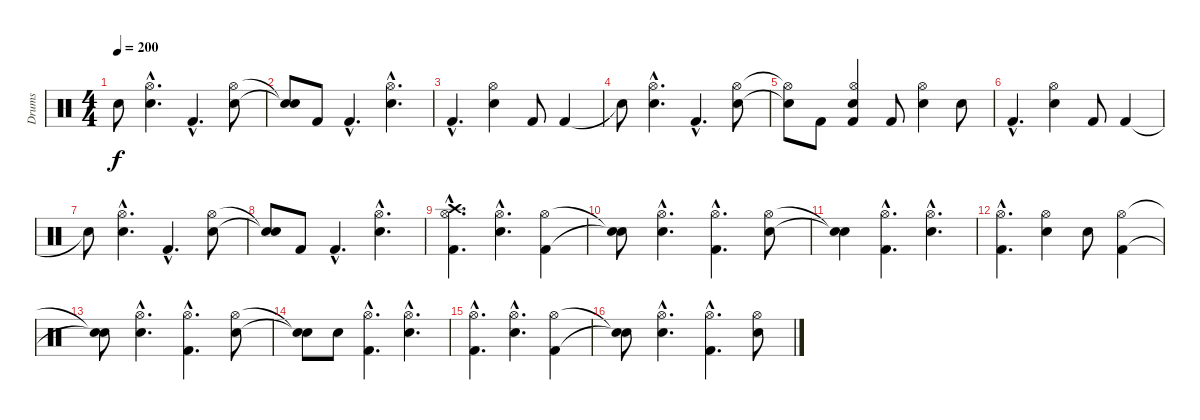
\track ("Drums" "Drums") {instrument percussion}
\staff {score}
\articulation defaults
\ts (4 4)
\tempo 200
\clef neutral
\ks c "Snare (hit)"{t}.8{dy f}
("Hi-Hat (open)"{hac} "Snare (hit) 2"{hac}).4{d} "Kick (hit) 2"{hac}.4{d} ("Hi-Hat (open)" "Snare (hit) 2").8 |
("Snare (hit)"{t} "Snare (hit)"{t}).8 "Kick (hit) 2".8 "Kick (hit) 2"{hac}.4{d} ("Hi-Hat (open)"{hac} "Snare (hit) 2"{hac}).4{d} |
"Kick (hit) 2"{hac}.4{d} ("Hi-Hat (open)" "Snare (hit) 2").4 "Kick (hit) 2".8 "Kick (hit) 2".4 |
"Snare (hit)"{t}.8 ("Hi-Hat (open)"{hac} "Snare (hit) 2"{hac}).4{d} "Kick (hit) 2"{hac}.4{d} ("Hi-Hat (open)" "Snare (hit) 2").8 |
("Hi-Hat (open)"{t} "Snare (hit) 2"{t}).8 "Kick (hit) 2".8 ("Hi-Hat (open)" "Snare (hit) 2" "Kick (hit) 2").4 "Kick (hit) 2".8 ("Hi-Hat (open)" "Snare (hit) 2").4 "Snare (hit) 2".8 |
"Kick (hit) 2"{hac}.4{d} ("Hi-Hat (open)" "Snare (hit) 2").4 "Kick (hit) 2".8 "Kick (hit) 2".4 |
"Snare (hit)"{t}.8 ("Hi-Hat (open)"{hac} "Snare (hit) 2"{hac}).4{d} "Kick (hit) 2"{hac}.4{d} ("Hi-Hat (open)" "Snare (hit) 2").8 |
("Snare (hit)"{t} "Snare (hit)"{t}).8 "Kick (hit) 2".8 "Kick (hit) 2"{hac}.4{d} ("Hi-Hat (open)"{hac} "Snare (hit) 2"{hac}).4{d} |
("Crash high (hit)"{hac} "Hi-Hat (open)"{hac} "Kick (hit) 2"{hac}).4{d} ("Hi-Hat (open)"{hac} "Snare (hit) 2"{hac}).4{d} ("Hi-Hat (open)" "Kick (hit) 2").4 |
("Snare (hit)"{t} "Snare (hit)"{t}).8 ("Hi-Hat (open)"{hac} "Snare (hit) 2"{hac}).4{d} ("Hi-Hat (open)"{hac} "Kick (hit) 2"{hac}).4{d} ("Hi-Hat (open)" "Snare (hit) 2").8 |
("Snare (hit)"{t} "Snare (hit)"{t}).4 ("Hi-Hat (open)"{hac} "Kick (hit) 2"{hac}).4{d} ("Hi-Hat (open)"{hac} "Snare (hit) 2"{hac}).4{d} |
("Hi-Hat (open)"{hac} "Kick (hit) 2"{hac}).4{d} ("Hi-Hat (open)" "Snare (hit) 2").4 "Snare (hit) 2".8 ("Hi-Hat (open)" "Kick (hit) 2").4 |
("Snare (hit)"{t} "Snare (hit)"{t}).8 ("Hi-Hat (open)"{hac} "Snare (hit) 2"{hac}).4{d} ("Hi-Hat (open)"{hac} "Kick (hit) 2"{hac}).4{d} ("Hi-Hat (open)" "Snare (hit) 2").8 |
("Snare (hit)"{t} "Snare (hit) 2"{t}).8 "Snare (hit) 2".8 ("Hi-Hat (open)"{hac} "Kick (hit) 2"{hac}).4{d} ("Hi-Hat (open)"{hac} "Snare (hit) 2"{hac}).4{d} |
("Hi-Hat (open)"{hac} "Kick (hit) 2"{hac}).4{d} ("Hi-Hat (open)"{hac} "Snare (hit) 2"{hac}).4{d} ("Hi-Hat (open)" "Kick (hit) 2").4 |
("Snare (hit)"{t} "Snare (hit)"{t}).8 ("Hi-Hat (open)"{hac} "Snare (hit) 2"{hac}).4{d} ("Hi-Hat (open)"{hac} "Kick (hit) 2"{hac}).4{d} ("Hi-Hat (open)" "Snare (hit) 2").8
